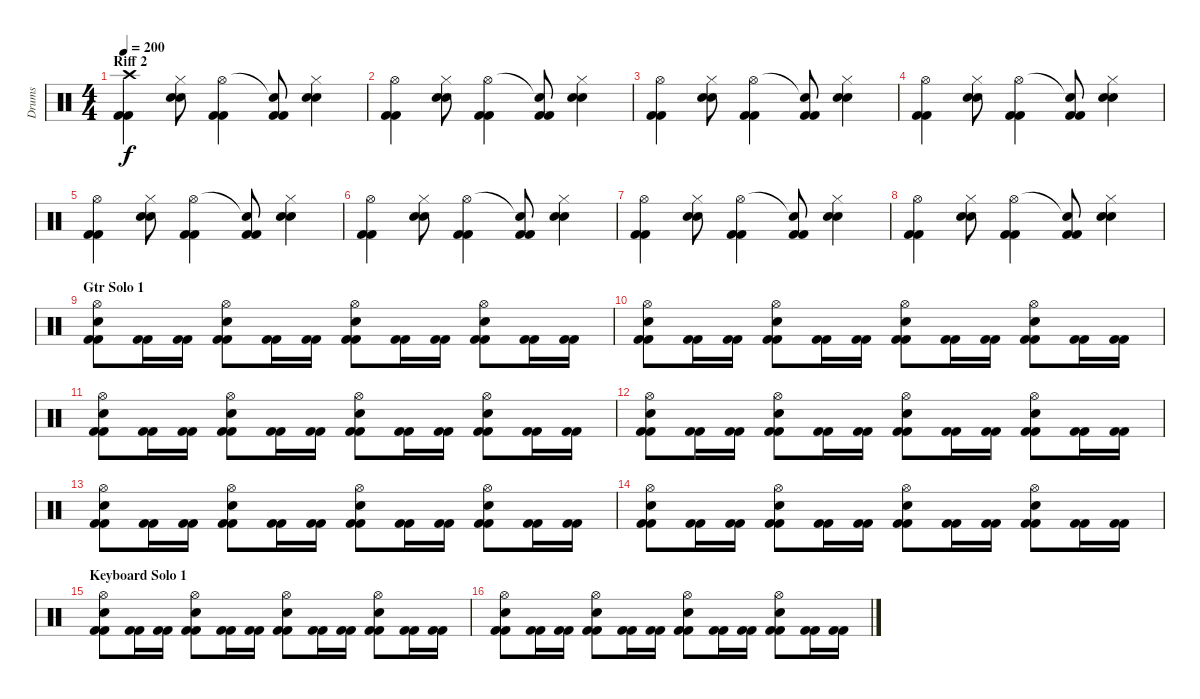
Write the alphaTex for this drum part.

\track ("Drums" "Drums") {instrument percussion}
\staff {score}
\articulation defaults
\ts (4 4)
\section ("" "Riff 2")
\tempo 200
\clef neutral
\ks c
("Crash high (hit)" "Kick (hit) 2" "Kick (hit) 2").4{dy f} ("Hi-Hat (closed)" "Snare (hit) 2" "Snare (hit) 2").8 ("Hi-Hat (open)" "Kick (hit) 2" "Kick (hit) 2").4 ("Snare (hit)"{t} "Kick (hit) 2" "Kick (hit) 2").8 ("Hi-Hat (closed)" "Snare (hit) 2" "Snare (hit) 2").4 |
("Hi-Hat (open)" "Kick (hit) 2" "Kick (hit) 2").4 ("Hi-Hat (closed)" "Snare (hit) 2" "Snare (hit) 2").8 ("Hi-Hat (open)" "Kick (hit) 2" "Kick (hit) 2").4 ("Snare (hit)"{t} "Kick (hit) 2" "Kick (hit) 2").8 ("Hi-Hat (closed)" "Snare (hit) 2" "Snare (hit) 2").4 |
("Hi-Hat (open)" "Kick (hit) 2" "Kick (hit) 2").4 ("Hi-Hat (closed)" "Snare (hit) 2" "Snare (hit) 2").8 ("Hi-Hat (open)" "Kick (hit) 2" "Kick (hit) 2").4 ("Snare (hit)"{t} "Kick (hit) 2" "Kick (hit) 2").8 ("Hi-Hat (closed)" "Snare (hit) 2" "Snare (hit) 2").4 |
("Hi-Hat (open)" "Kick (hit) 2" "Kick (hit) 2").4 ("Hi-Hat (closed)" "Snare (hit) 2" "Snare (hit) 2").8 ("Hi-Hat (open)" "Kick (hit) 2" "Kick (hit) 2").4 ("Snare (hit)"{t} "Kick (hit) 2" "Kick (hit) 2").8 ("Hi-Hat (closed)" "Snare (hit) 2" "Snare (hit) 2").4 |
("Hi-Hat (open)" "Kick (hit) 2" "Kick (hit) 2").4 ("Hi-Hat (closed)" "Snare (hit) 2" "Snare (hit) 2").8 ("Hi-Hat (open)" "Kick (hit) 2" "Kick (hit) 2").4 ("Snare (hit)"{t} "Kick (hit) 2" "Kick (hit) 2").8 ("Hi-Hat (closed)" "Snare (hit) 2" "Snare (hit) 2").4 |
("Hi-Hat (open)" "Kick (hit) 2" "Kick (hit) 2").4 ("Hi-Hat (closed)" "Snare (hit) 2" "Snare (hit) 2").8 ("Hi-Hat (open)" "Kick (hit) 2" "Kick (hit) 2").4 ("Snare (hit)"{t} "Kick (hit) 2" "Kick (hit) 2").8 ("Hi-Hat (closed)" "Snare (hit) 2" "Snare (hit) 2").4 |
("Hi-Hat (open)" "Kick (hit) 2" "Kick (hit) 2").4 ("Hi-Hat (closed)" "Snare (hit) 2" "Snare (hit) 2").8 ("Hi-Hat (open)" "Kick (hit) 2" "Kick (hit) 2").4 ("Snare (hit)"{t} "Kick (hit) 2" "Kick (hit) 2").8 ("Hi-Hat (closed)" "Snare (hit) 2" "Snare (hit) 2").4 |
("Hi-Hat (open)" "Kick (hit) 2" "Kick (hit) 2").4 ("Hi-Hat (closed)" "Snare (hit) 2" "Snare (hit) 2").8 ("Hi-Hat (open)" "Kick (hit) 2" "Kick (hit) 2").4 ("Snare (hit)"{t} "Kick (hit) 2" "Kick (hit) 2").8 ("Hi-Hat (closed)" "Snare (hit) 2" "Snare (hit) 2").4 |
\section ("" "Gtr Solo 1")
("Hi-Hat (open)" "Snare (hit) 2" "Kick (hit) 2" "Kick (hit) 2").8 ("Kick (hit) 2" "Kick (hit) 2").16 ("Kick (hit) 2" "Kick (hit) 2").16 ("Hi-Hat (open)" "Snare (hit) 2" "Kick (hit) 2" "Kick (hit) 2").8 ("Kick (hit) 2" "Kick (hit) 2").16 ("Kick (hit) 2" "Kick (hit) 2").16 ("Hi-Hat (open)" "Snare (hit) 2" "Kick (hit) 2" "Kick (hit) 2").8 ("Kick (hit) 2" "Kick (hit) 2").16 ("Kick (hit) 2" "Kick (hit) 2").16 ("Hi-Hat (open)" "Snare (hit) 2" "Kick (hit) 2" "Kick (hit) 2").8 ("Kick (hit) 2" "Kick (hit) 2").16 ("Kick (hit) 2" "Kick (hit) 2").16 |
("Hi-Hat (open)" "Snare (hit) 2" "Kick (hit) 2" "Kick (hit) 2").8 ("Kick (hit) 2" "Kick (hit) 2").16 ("Kick (hit) 2" "Kick (hit) 2").16 ("Hi-Hat (open)" "Snare (hit) 2" "Kick (hit) 2" "Kick (hit) 2").8 ("Kick (hit) 2" "Kick (hit) 2").16 ("Kick (hit) 2" "Kick (hit) 2").16 ("Hi-Hat (open)" "Snare (hit) 2" "Kick (hit) 2" "Kick (hit) 2").8 ("Kick (hit) 2" "Kick (hit) 2").16 ("Kick (hit) 2" "Kick (hit) 2").16 ("Hi-Hat (open)" "Snare (hit) 2" "Kick (hit) 2" "Kick (hit) 2").8 ("Kick (hit) 2" "Kick (hit) 2").16 ("Kick (hit) 2" "Kick (hit) 2").16 |
("Hi-Hat (open)" "Snare (hit) 2" "Kick (hit) 2" "Kick (hit) 2").8 ("Kick (hit) 2" "Kick (hit) 2").16 ("Kick (hit) 2" "Kick (hit) 2").16 ("Hi-Hat (open)" "Snare (hit) 2" "Kick (hit) 2" "Kick (hit) 2").8 ("Kick (hit) 2" "Kick (hit) 2").16 ("Kick (hit) 2" "Kick (hit) 2").16 ("Hi-Hat (open)" "Snare (hit) 2" "Kick (hit) 2" "Kick (hit) 2").8 ("Kick (hit) 2" "Kick (hit) 2").16 ("Kick (hit) 2" "Kick (hit) 2").16 ("Hi-Hat (open)" "Snare (hit) 2" "Kick (hit) 2" "Kick (hit) 2").8 ("Kick (hit) 2" "Kick (hit) 2").16 ("Kick (hit) 2" "Kick (hit) 2").16 |
("Hi-Hat (open)" "Snare (hit) 2" "Kick (hit) 2" "Kick (hit) 2").8 ("Kick (hit) 2" "Kick (hit) 2").16 ("Kick (hit) 2" "Kick (hit) 2").16 ("Hi-Hat (open)" "Snare (hit) 2" "Kick (hit) 2" "Kick (hit) 2").8 ("Kick (hit) 2" "Kick (hit) 2").16 ("Kick (hit) 2" "Kick (hit) 2").16 ("Hi-Hat (open)" "Snare (hit) 2" "Kick (hit) 2" "Kick (hit) 2").8 ("Kick (hit) 2" "Kick (hit) 2").16 ("Kick (hit) 2" "Kick (hit) 2").16 ("Hi-Hat (open)" "Snare (hit) 2" "Kick (hit) 2" "Kick (hit) 2").8 ("Kick (hit) 2" "Kick (hit) 2").16 ("Kick (hit) 2" "Kick (hit) 2").16 |
("Hi-Hat (open)" "Snare (hit) 2" "Kick (hit) 2" "Kick (hit) 2").8 ("Kick (hit) 2" "Kick (hit) 2").16 ("Kick (hit) 2" "Kick (hit) 2").16 ("Hi-Hat (open)" "Snare (hit) 2" "Kick (hit) 2" "Kick (hit) 2").8 ("Kick (hit) 2" "Kick (hit) 2").16 ("Kick (hit) 2" "Kick (hit) 2").16 ("Hi-Hat (open)" "Snare (hit) 2" "Kick (hit) 2" "Kick (hit) 2").8 ("Kick (hit) 2" "Kick (hit) 2").16 ("Kick (hit) 2" "Kick (hit) 2").16 ("Hi-Hat (open)" "Snare (hit) 2" "Kick (hit) 2" "Kick (hit) 2").8 ("Kick (hit) 2" "Kick (hit) 2").16 ("Kick (hit) 2" "Kick (hit) 2").16 |
("Hi-Hat (open)" "Snare (hit) 2" "Kick (hit) 2" "Kick (hit) 2").8 ("Kick (hit) 2" "Kick (hit) 2").16 ("Kick (hit) 2" "Kick (hit) 2").16 ("Hi-Hat (open)" "Snare (hit) 2" "Kick (hit) 2" "Kick (hit) 2").8 ("Kick (hit) 2" "Kick (hit) 2").16 ("Kick (hit) 2" "Kick (hit) 2").16 ("Hi-Hat (open)" "Snare (hit) 2" "Kick (hit) 2" "Kick (hit) 2").8 ("Kick (hit) 2" "Kick (hit) 2").16 ("Kick (hit) 2" "Kick (hit) 2").16 ("Hi-Hat (open)" "Snare (hit) 2" "Kick (hit) 2" "Kick (hit) 2").8 ("Kick (hit) 2" "Kick (hit) 2").16 ("Kick (hit) 2" "Kick (hit) 2").16 |
\section ("" "Keyboard Solo 1")
("Hi-Hat (open)" "Snare (hit) 2" "Kick (hit) 2" "Kick (hit) 2").8 ("Kick (hit) 2" "Kick (hit) 2").16 ("Kick (hit) 2" "Kick (hit) 2").16 ("Hi-Hat (open)" "Snare (hit) 2" "Kick (hit) 2" "Kick (hit) 2").8 ("Kick (hit) 2" "Kick (hit) 2").16 ("Kick (hit) 2" "Kick (hit) 2").16 ("Hi-Hat (open)" "Snare (hit) 2" "Kick (hit) 2" "Kick (hit) 2").8 ("Kick (hit) 2" "Kick (hit) 2").16 ("Kick (hit) 2" "Kick (hit) 2").16 ("Hi-Hat (open)" "Snare (hit) 2" "Kick (hit) 2" "Kick (hit) 2").8 ("Kick (hit) 2" "Kick (hit) 2").16 ("Kick (hit) 2" "Kick (hit) 2").16 |
("Hi-Hat (open)" "Snare (hit) 2" "Kick (hit) 2" "Kick (hit) 2").8 ("Kick (hit) 2" "Kick (hit) 2").16 ("Kick (hit) 2" "Kick (hit) 2").16 ("Hi-Hat (open)" "Snare (hit) 2" "Kick (hit) 2" "Kick (hit) 2").8 ("Kick (hit) 2" "Kick (hit) 2").16 ("Kick (hit) 2" "Kick (hit) 2").16 ("Hi-Hat (open)" "Snare (hit) 2" "Kick (hit) 2" "Kick (hit) 2").8 ("Kick (hit) 2" "Kick (hit) 2").16 ("Kick (hit) 2" "Kick (hit) 2").16 ("Hi-Hat (open)" "Snare (hit) 2" "Kick (hit) 2" "Kick (hit) 2").8 ("Kick (hit) 2" "Kick (hit) 2").16 ("Kick (hit) 2" "Kick (hit) 2").16
